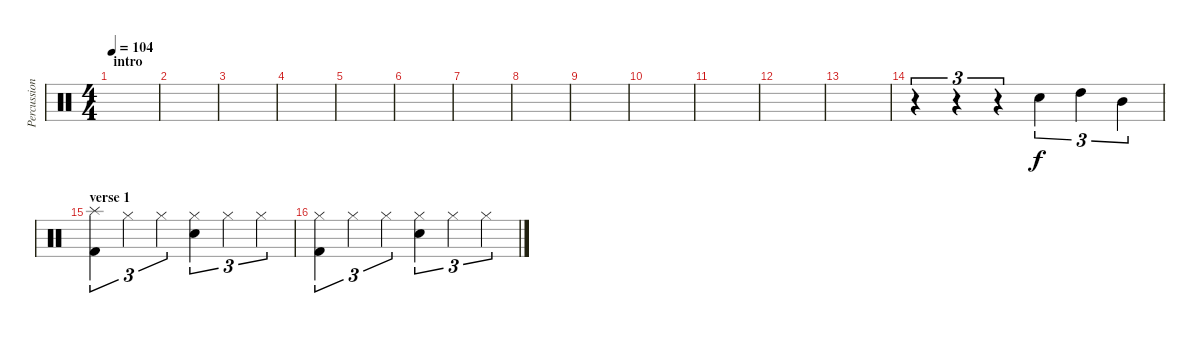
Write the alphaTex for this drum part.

\track ("Percussion" "Percussion") {instrument percussion}
\staff {score}
\articulation defaults
\ts (4 4)
\section ("" "intro")
\tempo 104
\clef neutral
\ks c
|
|
|
|
|
|
|
|
|
|
|
|
|
r.4{tu (3 2)} r.4{tu (3 2)} r.4{tu (3 2)} "Electric Snare (hit)".4{tu (3 2)} "High Tom (hit)".4{tu (3 2)} "Mid Tom (hit)".4{tu (3 2)} |
\section ("" "verse 1")
("Splash (hit)" "Kick (hit) 2").4{tu (3 2)} "Hi-Hat (closed)".4{tu (3 2)} "Hi-Hat (closed)".4{tu (3 2)} ("Electric Snare (hit)" "Hi-Hat (closed)").4{tu (3 2)} "Hi-Hat (closed)".4{tu (3 2)} "Hi-Hat (closed)".4{tu (3 2)} |
("Hi-Hat (closed)" "Kick (hit) 2").4{tu (3 2)} "Hi-Hat (closed)".4{tu (3 2)} "Hi-Hat (closed)".4{tu (3 2)} ("Electric Snare (hit)" "Hi-Hat (closed)").4{tu (3 2)} "Hi-Hat (closed)".4{tu (3 2)} "Hi-Hat (closed)".4{tu (3 2)}
